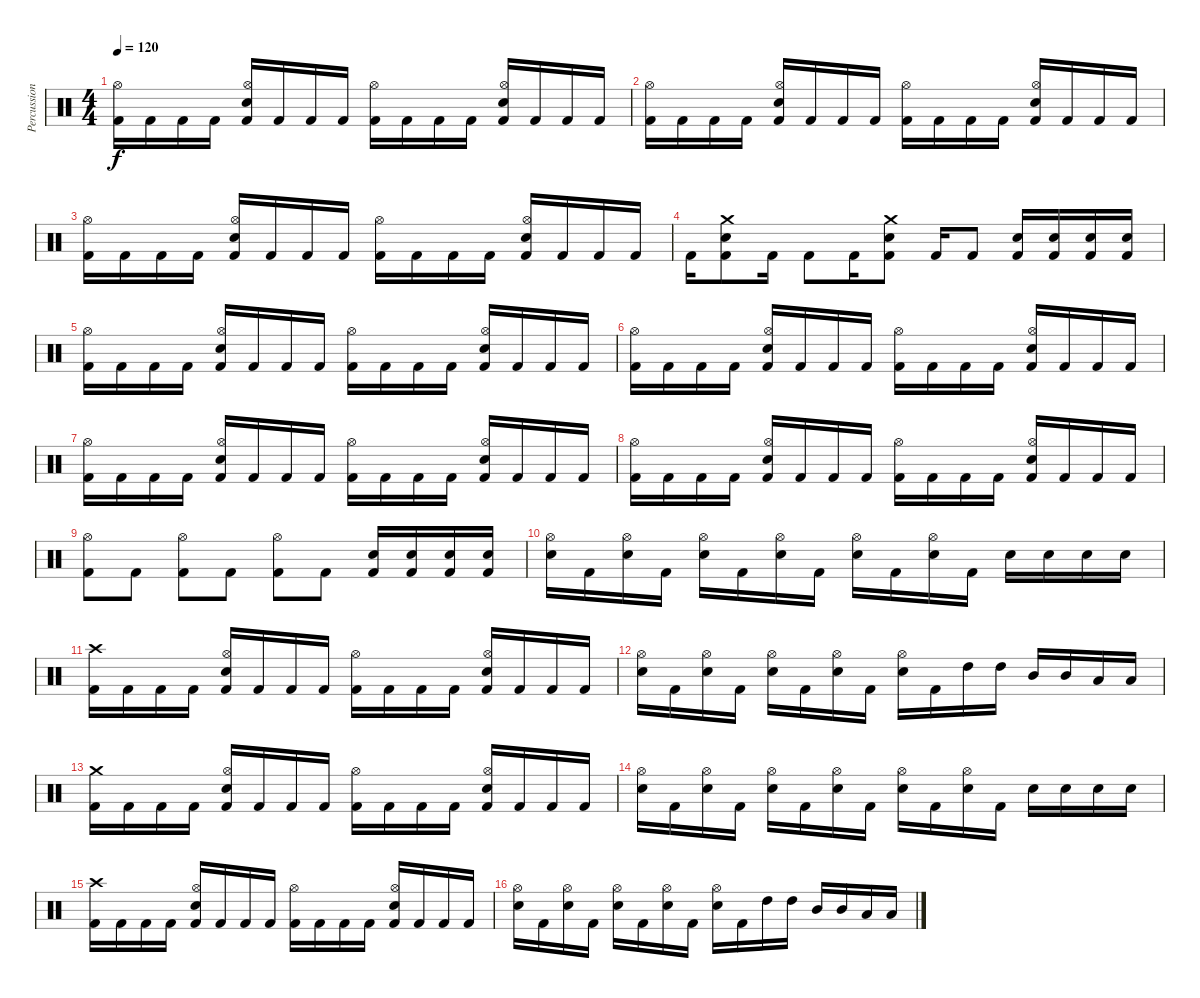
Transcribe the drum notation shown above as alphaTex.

\track ("Percussion" "Percussion") {instrument percussion}
\staff {score}
\articulation defaults
\ts (4 4)
\tempo 120
\clef neutral
\ks c
("Kick (hit) 2" "Hi-Hat (open)").16{dy f} "Kick (hit) 2".16 "Kick (hit) 2".16 "Kick (hit) 2".16 ("Kick (hit) 2" "Hi-Hat (open)" "Electric Snare (hit)").16 "Kick (hit) 2".16 "Kick (hit) 2".16 "Kick (hit) 2".16 ("Kick (hit) 2" "Hi-Hat (open)").16 "Kick (hit) 2".16 "Kick (hit) 2".16 "Kick (hit) 2".16 ("Kick (hit) 2" "Hi-Hat (open)" "Electric Snare (hit)").16 "Kick (hit) 2".16 "Kick (hit) 2".16 "Kick (hit) 2".16 |
("Kick (hit) 2" "Hi-Hat (open)").16 "Kick (hit) 2".16 "Kick (hit) 2".16 "Kick (hit) 2".16 ("Kick (hit) 2" "Hi-Hat (open)" "Electric Snare (hit)").16 "Kick (hit) 2".16 "Kick (hit) 2".16 "Kick (hit) 2".16 ("Kick (hit) 2" "Hi-Hat (open)").16 "Kick (hit) 2".16 "Kick (hit) 2".16 "Kick (hit) 2".16 ("Kick (hit) 2" "Hi-Hat (open)" "Electric Snare (hit)").16 "Kick (hit) 2".16 "Kick (hit) 2".16 "Kick (hit) 2".16 |
("Kick (hit) 2" "Hi-Hat (open)").16 "Kick (hit) 2".16 "Kick (hit) 2".16 "Kick (hit) 2".16 ("Kick (hit) 2" "Hi-Hat (open)" "Electric Snare (hit)").16 "Kick (hit) 2".16 "Kick (hit) 2".16 "Kick (hit) 2".16 ("Kick (hit) 2" "Hi-Hat (open)").16 "Kick (hit) 2".16 "Kick (hit) 2".16 "Kick (hit) 2".16 ("Kick (hit) 2" "Hi-Hat (open)" "Electric Snare (hit)").16 "Kick (hit) 2".16 "Kick (hit) 2".16 "Kick (hit) 2".16 |
"Kick (hit) 2".16 ("Kick (hit) 2" "Electric Snare (hit)" "Crash medium (hit)").8 "Kick (hit) 2".16 "Kick (hit) 2".8 "Kick (hit) 2".16 ("Kick (hit) 2" "Electric Snare (hit)" "Crash medium (hit)").8 "Kick (hit) 2".16 "Kick (hit) 2".8 ("Kick (hit) 2" "Electric Snare (hit)").16 ("Kick (hit) 2" "Electric Snare (hit)").16 ("Kick (hit) 2" "Electric Snare (hit)").16 ("Kick (hit) 2" "Electric Snare (hit)").16 |
("Kick (hit) 2" "Hi-Hat (open)").16 "Kick (hit) 2".16 "Kick (hit) 2".16 "Kick (hit) 2".16 ("Kick (hit) 2" "Hi-Hat (open)" "Electric Snare (hit)").16 "Kick (hit) 2".16 "Kick (hit) 2".16 "Kick (hit) 2".16 ("Kick (hit) 2" "Hi-Hat (open)").16 "Kick (hit) 2".16 "Kick (hit) 2".16 "Kick (hit) 2".16 ("Kick (hit) 2" "Hi-Hat (open)" "Electric Snare (hit)").16 "Kick (hit) 2".16 "Kick (hit) 2".16 "Kick (hit) 2".16 |
("Kick (hit) 2" "Hi-Hat (open)").16 "Kick (hit) 2".16 "Kick (hit) 2".16 "Kick (hit) 2".16 ("Kick (hit) 2" "Hi-Hat (open)" "Electric Snare (hit)").16 "Kick (hit) 2".16 "Kick (hit) 2".16 "Kick (hit) 2".16 ("Kick (hit) 2" "Hi-Hat (open)").16 "Kick (hit) 2".16 "Kick (hit) 2".16 "Kick (hit) 2".16 ("Kick (hit) 2" "Hi-Hat (open)" "Electric Snare (hit)").16 "Kick (hit) 2".16 "Kick (hit) 2".16 "Kick (hit) 2".16 |
("Kick (hit) 2" "Hi-Hat (open)").16 "Kick (hit) 2".16 "Kick (hit) 2".16 "Kick (hit) 2".16 ("Kick (hit) 2" "Hi-Hat (open)" "Electric Snare (hit)").16 "Kick (hit) 2".16 "Kick (hit) 2".16 "Kick (hit) 2".16 ("Kick (hit) 2" "Hi-Hat (open)").16 "Kick (hit) 2".16 "Kick (hit) 2".16 "Kick (hit) 2".16 ("Kick (hit) 2" "Hi-Hat (open)" "Electric Snare (hit)").16 "Kick (hit) 2".16 "Kick (hit) 2".16 "Kick (hit) 2".16 |
("Kick (hit) 2" "Hi-Hat (open)").16 "Kick (hit) 2".16 "Kick (hit) 2".16 "Kick (hit) 2".16 ("Kick (hit) 2" "Hi-Hat (open)" "Electric Snare (hit)").16 "Kick (hit) 2".16 "Kick (hit) 2".16 "Kick (hit) 2".16 ("Kick (hit) 2" "Hi-Hat (open)").16 "Kick (hit) 2".16 "Kick (hit) 2".16 "Kick (hit) 2".16 ("Kick (hit) 2" "Hi-Hat (open)" "Electric Snare (hit)").16 "Kick (hit) 2".16 "Kick (hit) 2".16 "Kick (hit) 2".16 |
("Kick (hit) 2" "Hi-Hat (open)").8 "Kick (hit) 2".8 ("Kick (hit) 2" "Hi-Hat (open)").8 "Kick (hit) 2".8 ("Kick (hit) 2" "Hi-Hat (open)").8 "Kick (hit) 2".8 ("Kick (hit) 2" "Electric Snare (hit)").16 ("Kick (hit) 2" "Electric Snare (hit)").16 ("Kick (hit) 2" "Electric Snare (hit)").16 ("Kick (hit) 2" "Electric Snare (hit)").16 |
("Electric Snare (hit)" "Hi-Hat (open)").16 "Kick (hit) 2".16 ("Electric Snare (hit)" "Hi-Hat (open)").16 "Kick (hit) 2".16 ("Electric Snare (hit)" "Hi-Hat (open)").16 "Kick (hit) 2".16 ("Electric Snare (hit)" "Hi-Hat (open)").16 "Kick (hit) 2".16 ("Electric Snare (hit)" "Hi-Hat (open)").16 "Kick (hit) 2".16 ("Electric Snare (hit)" "Hi-Hat (open)").16 "Kick (hit) 2".16 "Electric Snare (hit)".16 "Electric Snare (hit)".16 "Electric Snare (hit)".16 "Electric Snare (hit)".16 |
("Kick (hit) 2" "Crash high (hit)").16 "Kick (hit) 2".16 "Kick (hit) 2".16 "Kick (hit) 2".16 ("Kick (hit) 2" "Hi-Hat (open)" "Electric Snare (hit)").16 "Kick (hit) 2".16 "Kick (hit) 2".16 "Kick (hit) 2".16 ("Kick (hit) 2" "Hi-Hat (open)").16 "Kick (hit) 2".16 "Kick (hit) 2".16 "Kick (hit) 2".16 ("Kick (hit) 2" "Hi-Hat (open)" "Electric Snare (hit)").16 "Kick (hit) 2".16 "Kick (hit) 2".16 "Kick (hit) 2".16 |
("Electric Snare (hit)" "Hi-Hat (open)").16 "Kick (hit) 2".16 ("Electric Snare (hit)" "Hi-Hat (open)").16 "Kick (hit) 2".16 ("Electric Snare (hit)" "Hi-Hat (open)").16 "Kick (hit) 2".16 ("Electric Snare (hit)" "Hi-Hat (open)").16 "Kick (hit) 2".16 ("Electric Snare (hit)" "Hi-Hat (open)").16 "Kick (hit) 2".16 "High Tom (hit)".16 "High Tom (hit)".16 "Mid Tom (hit)".16 "Mid Tom (hit)".16 "Low Tom (hit)".16 "Low Tom (hit)".16 |
("Kick (hit) 2" "Crash medium (hit)").16 "Kick (hit) 2".16 "Kick (hit) 2".16 "Kick (hit) 2".16 ("Kick (hit) 2" "Hi-Hat (open)" "Electric Snare (hit)").16 "Kick (hit) 2".16 "Kick (hit) 2".16 "Kick (hit) 2".16 ("Kick (hit) 2" "Hi-Hat (open)").16 "Kick (hit) 2".16 "Kick (hit) 2".16 "Kick (hit) 2".16 ("Kick (hit) 2" "Hi-Hat (open)" "Electric Snare (hit)").16 "Kick (hit) 2".16 "Kick (hit) 2".16 "Kick (hit) 2".16 |
("Electric Snare (hit)" "Hi-Hat (open)").16 "Kick (hit) 2".16 ("Electric Snare (hit)" "Hi-Hat (open)").16 "Kick (hit) 2".16 ("Electric Snare (hit)" "Hi-Hat (open)").16 "Kick (hit) 2".16 ("Electric Snare (hit)" "Hi-Hat (open)").16 "Kick (hit) 2".16 ("Electric Snare (hit)" "Hi-Hat (open)").16 "Kick (hit) 2".16 ("Electric Snare (hit)" "Hi-Hat (open)").16 "Kick (hit) 2".16 "Electric Snare (hit)".16 "Electric Snare (hit)".16 "Electric Snare (hit)".16 "Electric Snare (hit)".16 |
("Kick (hit) 2" "Crash high (hit)").16 "Kick (hit) 2".16 "Kick (hit) 2".16 "Kick (hit) 2".16 ("Kick (hit) 2" "Hi-Hat (open)" "Electric Snare (hit)").16 "Kick (hit) 2".16 "Kick (hit) 2".16 "Kick (hit) 2".16 ("Kick (hit) 2" "Hi-Hat (open)").16 "Kick (hit) 2".16 "Kick (hit) 2".16 "Kick (hit) 2".16 ("Kick (hit) 2" "Hi-Hat (open)" "Electric Snare (hit)").16 "Kick (hit) 2".16 "Kick (hit) 2".16 "Kick (hit) 2".16 |
("Electric Snare (hit)" "Hi-Hat (open)").16 "Kick (hit) 2".16 ("Electric Snare (hit)" "Hi-Hat (open)").16 "Kick (hit) 2".16 ("Electric Snare (hit)" "Hi-Hat (open)").16 "Kick (hit) 2".16 ("Electric Snare (hit)" "Hi-Hat (open)").16 "Kick (hit) 2".16 ("Electric Snare (hit)" "Hi-Hat (open)").16 "Kick (hit) 2".16 "High Tom (hit)".16 "High Tom (hit)".16 "Mid Tom (hit)".16 "Mid Tom (hit)".16 "Low Tom (hit)".16 "Low Tom (hit)".16
